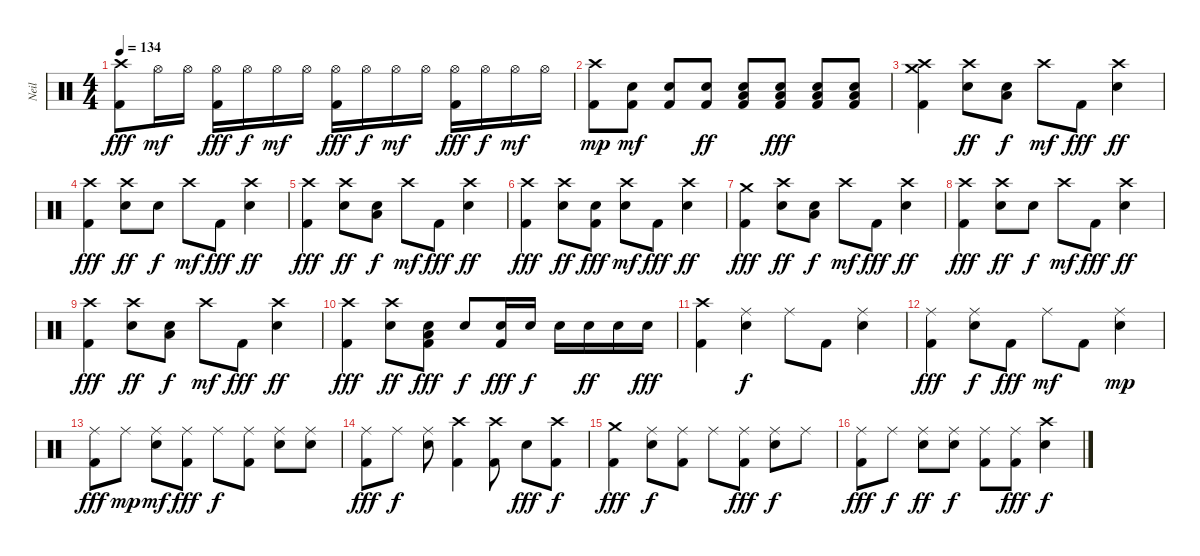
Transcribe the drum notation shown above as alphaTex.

\track ("Neil" "Neil") {instrument percussion}
\staff {score}
\articulation defaults
\ts (4 4)
\tempo 134
\clef neutral
\ks c
("Crash high (hit)" "Kick (hit) 2").8{dy fff} "Hi-Hat (open)".16{dy mf} "Hi-Hat (open)".16 ("Hi-Hat (open)" "Kick (hit) 2").16{dy fff} "Hi-Hat (open)".16{dy f} "Hi-Hat (open)".16{dy mf} "Hi-Hat (open)".16 ("Hi-Hat (open)" "Kick (hit) 2").16{dy fff} "Hi-Hat (open)".16{dy f} "Hi-Hat (open)".16{dy mf} "Hi-Hat (open)".16 ("Hi-Hat (open)" "Kick (hit) 2").16{dy fff} "Hi-Hat (open)".16{dy f} "Hi-Hat (open)".16{dy mf} "Hi-Hat (open)".16 |
("Kick (hit) 2" "Crash high (hit)").8{dy mp} ("Electric Snare (hit)" "Kick (hit) 2").8{dy mf} ("Electric Snare (hit)" "Kick (hit) 2").8 ("Electric Snare (hit)" "Kick (hit) 2").8{dy ff} ("Low Floor Tom (hit)" "Electric Snare (hit)" "Kick (hit) 2").8 ("Low Floor Tom (hit)" "Electric Snare (hit)" "Kick (hit) 2").8{dy fff} ("Low Floor Tom (hit)" "Electric Snare (hit)" "Kick (hit) 2").8 ("Low Floor Tom (hit)" "Electric Snare (hit)" "Kick (hit) 2").8 |
("Crash medium (hit)" "Crash high (hit)" "Kick (hit) 2").4 ("Crash high (hit)" "Snare (hit) 2").8{dy ff} ("Low Tom (hit)" "Snare (hit) 2").8{dy f} "Crash high (hit)".8{dy mf} "Kick (hit) 2".8{dy fff} ("Crash high (hit)" "Snare (hit) 2").4{dy ff} |
("Crash high (hit)" "Kick (hit) 2").4{dy fff} ("Crash high (hit)" "Snare (hit) 2").8{dy ff} "Snare (hit) 2".8{dy f} "Crash high (hit)".8{dy mf} "Kick (hit) 2".8{dy fff} ("Crash high (hit)" "Snare (hit) 2").4{dy ff} |
("Crash high (hit)" "Kick (hit) 2").4{dy fff} ("Crash high (hit)" "Snare (hit) 2").8{dy ff} ("Low Tom (hit)" "Snare (hit) 2").8{dy f} "Crash high (hit)".8{dy mf} "Kick (hit) 2".8{dy fff} ("Crash high (hit)" "Snare (hit) 2").4{dy ff} |
("Crash high (hit)" "Kick (hit) 2").4{dy fff} ("Crash high (hit)" "Snare (hit) 2").8{dy ff} ("Snare (hit) 2" "Kick (hit) 2").8{dy fff} ("Snare (hit) 2" "Crash high (hit)").8{dy mf} "Kick (hit) 2".8{dy fff} ("Crash high (hit)" "Snare (hit) 2").4{dy ff} |
("Crash medium (hit)" "Kick (hit) 2").4{dy fff} ("Crash high (hit)" "Snare (hit) 2").8{dy ff} ("Low Tom (hit)" "Snare (hit) 2").8{dy f} "Crash high (hit)".8{dy mf} "Kick (hit) 2".8{dy fff} ("Crash high (hit)" "Snare (hit) 2").4{dy ff} |
("Crash high (hit)" "Kick (hit) 2").4{dy fff} ("Crash high (hit)" "Snare (hit) 2").8{dy ff} "Snare (hit) 2".8{dy f} "Crash high (hit)".8{dy mf} "Kick (hit) 2".8{dy fff} ("Crash high (hit)" "Snare (hit) 2").4{dy ff} |
("Crash high (hit)" "Kick (hit) 2").4{dy fff} ("Crash high (hit)" "Snare (hit) 2").8{dy ff} ("Low Tom (hit)" "Snare (hit) 2").8{dy f} "Crash high (hit)".8{dy mf} "Kick (hit) 2".8{dy fff} ("Crash high (hit)" "Snare (hit) 2").4{dy ff} |
("Crash high (hit)" "Kick (hit) 2").4{dy fff} ("Crash high (hit)" "Snare (hit) 2").8{dy ff} ("Low Tom (hit)" "Snare (hit) 2" "Kick (hit) 2").8{dy fff} "Snare (hit) 2".8{dy f} ("Snare (hit) 2" "Kick (hit) 2").16{dy fff} "Snare (hit) 2".16{dy f} "Snare (hit) 2".16 "Snare (hit) 2".16{dy ff} "Snare (hit) 2".16 "Snare (hit) 2".16{dy fff} |
("Kick (hit) 2" "Crash high (hit)").4 ("Ride (middle)" "Snare (hit) 2").4{dy f} "Ride (middle)".8 "Kick (hit) 2".8 ("Ride (middle)" "Snare (hit) 2").4 |
("Ride (middle)" "Kick (hit) 2").4{dy fff} ("Ride (middle)" "Snare (hit) 2").8{dy f} "Kick (hit) 2".8{dy fff} "Ride (middle)".8{dy mf} "Kick (hit) 2".8 ("Ride (middle)" "Snare (hit) 2").4{dy mp} |
("Ride (middle)" "Kick (hit) 2").8{dy fff} "Ride (middle)".8{dy mp} ("Ride (middle)" "Snare (hit) 2").8{dy mf} ("Ride (middle)" "Kick (hit) 2").8{dy fff} "Ride (middle)".8{dy f} ("Ride (middle)" "Kick (hit) 2").8 ("Ride (middle)" "Snare (hit) 2").8 ("Ride (middle)" "Snare (hit) 2").8 |
("Kick (hit) 2" "Ride (middle)").8{dy fff} "Ride (middle)".8{dy f} ("Snare (hit) 2" "Ride (middle)").8 ("Kick (hit) 2" "Crash high (hit)").4 ("Kick (hit) 2" "Crash high (hit)").8 "Snare (hit) 2".8{dy fff} ("Kick (hit) 2" "Crash high (hit)").8{dy f} |
("Crash medium (hit)" "Kick (hit) 2").4{dy fff} ("Ride (middle)" "Snare (hit) 2").8{dy f} ("Ride (middle)" "Kick (hit) 2").8 "Ride (middle)".8 ("Ride (middle)" "Kick (hit) 2").8{dy fff} ("Ride (middle)" "Snare (hit) 2").8{dy f} "Ride (middle)".8 |
("Ride (middle)" "Kick (hit) 2").8{dy fff} "Ride (middle)".8{dy f} ("Snare (hit) 2" "Ride (middle)").8{dy ff} ("Snare (hit) 2" "Ride (middle)").8{dy f} ("Kick (hit) 2" "Ride (middle)").8 ("Kick (hit) 2" "Ride (middle)").8{dy fff} ("Crash high (hit)" "Snare (hit) 2").4{dy f}
